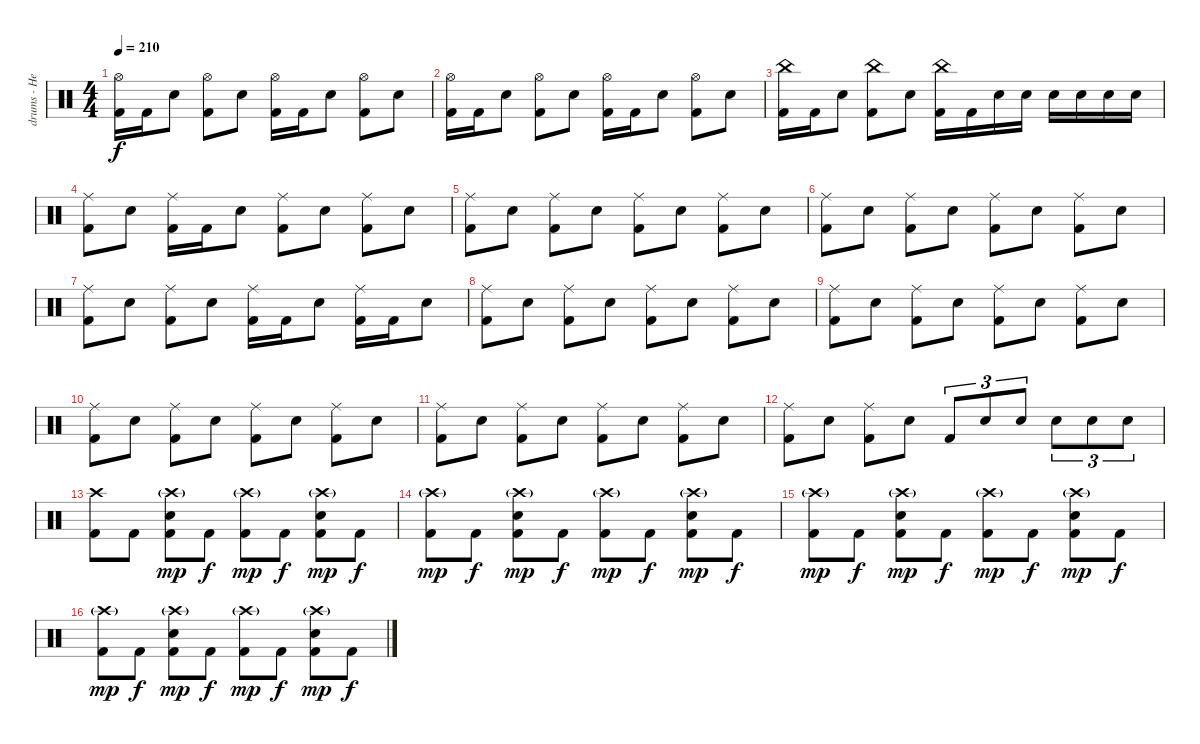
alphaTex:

\track ("drums - Heikki" "drums - He") {instrument percussion}
\staff {score}
\articulation defaults
\ts (4 4)
\tempo 210
\clef neutral
\ks c
("Hi-Hat (open)" "Kick (hit) 2").16{dy f} "Kick (hit) 2".16 "Snare (hit) 2".8 ("Hi-Hat (open)" "Kick (hit) 2").8 "Snare (hit) 2".8 ("Hi-Hat (open)" "Kick (hit) 2").16 "Kick (hit) 2".16 "Snare (hit) 2".8 ("Hi-Hat (open)" "Kick (hit) 2").8 "Snare (hit) 2".8 |
("Hi-Hat (open)" "Kick (hit) 2").16 "Kick (hit) 2".16 "Snare (hit) 2".8 ("Hi-Hat (open)" "Kick (hit) 2").8 "Snare (hit) 2".8 ("Hi-Hat (open)" "Kick (hit) 2").16 "Kick (hit) 2".16 "Snare (hit) 2".8 ("Hi-Hat (open)" "Kick (hit) 2").8 "Snare (hit) 2".8 |
("China (hit)" "Kick (hit) 2").16 "Kick (hit) 2".16 "Snare (hit) 2".8 ("China (hit)" "Kick (hit) 2").8 "Snare (hit) 2".8 ("China (hit)" "Kick (hit) 2").16 "Kick (hit) 2".16 "Snare (hit) 2".16 "Snare (hit) 2".16 "Snare (hit) 2".16 "Snare (hit) 2".16 "Snare (hit) 2".16 "Snare (hit) 2".16 |
("Ride (middle)" "Kick (hit) 2").8 "Snare (hit) 2".8 ("Ride (middle)" "Kick (hit) 2").16 "Kick (hit) 2".16 "Snare (hit) 2".8 ("Ride (middle)" "Kick (hit) 2").8 "Snare (hit) 2".8 ("Ride (middle)" "Kick (hit) 2").8 "Snare (hit) 2".8 |
("Ride (middle)" "Kick (hit) 2").8 "Snare (hit) 2".8 ("Ride (middle)" "Kick (hit) 2").8 "Snare (hit) 2".8 ("Ride (middle)" "Kick (hit) 2").8 "Snare (hit) 2".8 ("Ride (middle)" "Kick (hit) 2").8 "Snare (hit) 2".8 |
("Ride (middle)" "Kick (hit) 2").8 "Snare (hit) 2".8 ("Ride (middle)" "Kick (hit) 2").8 "Snare (hit) 2".8 ("Ride (middle)" "Kick (hit) 2").8 "Snare (hit) 2".8 ("Ride (middle)" "Kick (hit) 2").8 "Snare (hit) 2".8 |
("Ride (middle)" "Kick (hit) 2").8 "Snare (hit) 2".8 ("Ride (middle)" "Kick (hit) 2").8 "Snare (hit) 2".8 ("Ride (middle)" "Kick (hit) 2").16 "Kick (hit) 2".16 "Snare (hit) 2".8 ("Ride (middle)" "Kick (hit) 2").16 "Kick (hit) 2".16 "Snare (hit) 2".8 |
("Ride (middle)" "Kick (hit) 2").8 "Snare (hit) 2".8 ("Ride (middle)" "Kick (hit) 2").8 "Snare (hit) 2".8 ("Ride (middle)" "Kick (hit) 2").8 "Snare (hit) 2".8 ("Ride (middle)" "Kick (hit) 2").8 "Snare (hit) 2".8 |
("Ride (middle)" "Kick (hit) 2").8 "Snare (hit) 2".8 ("Ride (middle)" "Kick (hit) 2").8 "Snare (hit) 2".8 ("Ride (middle)" "Kick (hit) 2").8 "Snare (hit) 2".8 ("Ride (middle)" "Kick (hit) 2").8 "Snare (hit) 2".8 |
("Ride (middle)" "Kick (hit) 2").8 "Snare (hit) 2".8 ("Ride (middle)" "Kick (hit) 2").8 "Snare (hit) 2".8 ("Ride (middle)" "Kick (hit) 2").8 "Snare (hit) 2".8 ("Ride (middle)" "Kick (hit) 2").8 "Snare (hit) 2".8 |
("Ride (middle)" "Kick (hit) 2").8 "Snare (hit) 2".8 ("Ride (middle)" "Kick (hit) 2").8 "Snare (hit) 2".8 ("Ride (middle)" "Kick (hit) 2").8 "Snare (hit) 2".8 ("Ride (middle)" "Kick (hit) 2").8 "Snare (hit) 2".8 |
("Ride (middle)" "Kick (hit) 2").8 "Snare (hit) 2".8 ("Ride (middle)" "Kick (hit) 2").8 "Snare (hit) 2".8 "Kick (hit) 2".8{tu (3 2)} "Snare (hit) 2".8{tu (3 2)} "Snare (hit) 2".8{tu (3 2)} "Snare (hit) 2".8{tu (3 2)} "Snare (hit) 2".8{tu (3 2)} "Snare (hit) 2".8{tu (3 2)} |
("Crash high (hit)" "Kick (hit) 2").8 "Kick (hit) 2".8 ("Crash high (hit)"{g} "Snare (hit) 2" "Kick (hit) 2").8{dy mp} "Kick (hit) 2".8{dy f} ("Crash high (hit)"{g} "Kick (hit) 2").8{dy mp} "Kick (hit) 2".8{dy f} ("Crash high (hit)"{g} "Snare (hit) 2" "Kick (hit) 2").8{dy mp} "Kick (hit) 2".8{dy f} |
("Crash high (hit)"{g} "Kick (hit) 2").8{dy mp} "Kick (hit) 2".8{dy f} ("Crash high (hit)"{g} "Snare (hit) 2" "Kick (hit) 2").8{dy mp} "Kick (hit) 2".8{dy f} ("Crash high (hit)"{g} "Kick (hit) 2").8{dy mp} "Kick (hit) 2".8{dy f} ("Crash high (hit)"{g} "Snare (hit) 2" "Kick (hit) 2").8{dy mp} "Kick (hit) 2".8{dy f} |
("Crash high (hit)"{g} "Kick (hit) 2").8{dy mp} "Kick (hit) 2".8{dy f} ("Crash high (hit)"{g} "Snare (hit) 2" "Kick (hit) 2").8{dy mp} "Kick (hit) 2".8{dy f} ("Crash high (hit)"{g} "Kick (hit) 2").8{dy mp} "Kick (hit) 2".8{dy f} ("Crash high (hit)"{g} "Snare (hit) 2" "Kick (hit) 2").8{dy mp} "Kick (hit) 2".8{dy f} |
("Crash high (hit)"{g} "Kick (hit) 2").8{dy mp} "Kick (hit) 2".8{dy f} ("Crash high (hit)"{g} "Snare (hit) 2" "Kick (hit) 2").8{dy mp} "Kick (hit) 2".8{dy f} ("Crash high (hit)"{g} "Kick (hit) 2").8{dy mp} "Kick (hit) 2".8{dy f} ("Crash high (hit)"{g} "Snare (hit) 2" "Kick (hit) 2").8{dy mp} "Kick (hit) 2".8{dy f}
